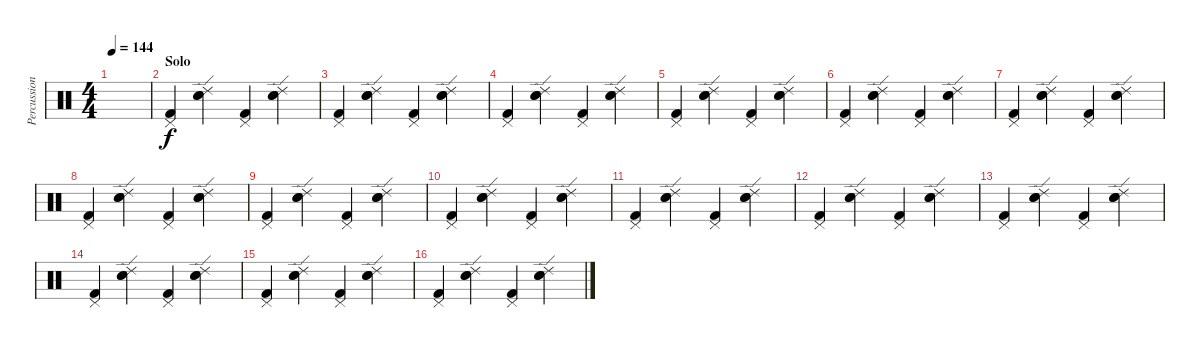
\track ("Percussions" "Percussion") {instrument percussion}
\staff {score}
\articulation defaults
\ts (4 4)
\tempo 144
\clef neutral
\ks c
|
\section ("" "Solo")
("Kick (hit) 2" "Pedal Hi-Hat (hit)").4 ("Snare (hit) 2" "Electric Snare (hit)" "Ride (edge) 2").4 ("Kick (hit) 2" "Pedal Hi-Hat (hit)").4 ("Snare (hit) 2" "Electric Snare (hit)" "Ride (edge) 2").4 |
("Kick (hit) 2" "Pedal Hi-Hat (hit)").4 ("Snare (hit) 2" "Electric Snare (hit)" "Ride (edge) 2").4 ("Kick (hit) 2" "Pedal Hi-Hat (hit)").4 ("Snare (hit) 2" "Electric Snare (hit)" "Ride (edge) 2").4 |
("Kick (hit) 2" "Pedal Hi-Hat (hit)").4 ("Snare (hit) 2" "Electric Snare (hit)" "Ride (edge) 2").4 ("Kick (hit) 2" "Pedal Hi-Hat (hit)").4 ("Snare (hit) 2" "Electric Snare (hit)" "Ride (edge) 2").4 |
("Kick (hit) 2" "Pedal Hi-Hat (hit)").4 ("Snare (hit) 2" "Electric Snare (hit)" "Ride (edge) 2").4 ("Kick (hit) 2" "Pedal Hi-Hat (hit)").4 ("Snare (hit) 2" "Electric Snare (hit)" "Ride (edge) 2").4 |
("Kick (hit) 2" "Pedal Hi-Hat (hit)").4 ("Snare (hit) 2" "Electric Snare (hit)" "Ride (edge) 2").4 ("Kick (hit) 2" "Pedal Hi-Hat (hit)").4 ("Snare (hit) 2" "Electric Snare (hit)" "Ride (edge) 2").4 |
("Kick (hit) 2" "Pedal Hi-Hat (hit)").4 ("Snare (hit) 2" "Electric Snare (hit)" "Ride (edge) 2").4 ("Kick (hit) 2" "Pedal Hi-Hat (hit)").4 ("Snare (hit) 2" "Electric Snare (hit)" "Ride (edge) 2").4 |
("Kick (hit) 2" "Pedal Hi-Hat (hit)").4 ("Snare (hit) 2" "Electric Snare (hit)" "Ride (edge) 2").4 ("Kick (hit) 2" "Pedal Hi-Hat (hit)").4 ("Snare (hit) 2" "Electric Snare (hit)" "Ride (edge) 2").4 |
("Kick (hit) 2" "Pedal Hi-Hat (hit)").4 ("Snare (hit) 2" "Electric Snare (hit)" "Ride (edge) 2").4 ("Kick (hit) 2" "Pedal Hi-Hat (hit)").4 ("Snare (hit) 2" "Electric Snare (hit)" "Ride (edge) 2").4 |
("Kick (hit) 2" "Pedal Hi-Hat (hit)").4 ("Snare (hit) 2" "Electric Snare (hit)" "Ride (edge) 2").4 ("Kick (hit) 2" "Pedal Hi-Hat (hit)").4 ("Snare (hit) 2" "Electric Snare (hit)" "Ride (edge) 2").4 |
("Kick (hit) 2" "Pedal Hi-Hat (hit)").4 ("Snare (hit) 2" "Electric Snare (hit)" "Ride (edge) 2").4 ("Kick (hit) 2" "Pedal Hi-Hat (hit)").4 ("Snare (hit) 2" "Electric Snare (hit)" "Ride (edge) 2").4 |
("Kick (hit) 2" "Pedal Hi-Hat (hit)").4 ("Snare (hit) 2" "Electric Snare (hit)" "Ride (edge) 2").4 ("Kick (hit) 2" "Pedal Hi-Hat (hit)").4 ("Snare (hit) 2" "Electric Snare (hit)" "Ride (edge) 2").4 |
("Kick (hit) 2" "Pedal Hi-Hat (hit)").4 ("Snare (hit) 2" "Electric Snare (hit)" "Ride (edge) 2").4 ("Kick (hit) 2" "Pedal Hi-Hat (hit)").4 ("Snare (hit) 2" "Electric Snare (hit)" "Ride (edge) 2").4 |
("Kick (hit) 2" "Pedal Hi-Hat (hit)").4 ("Snare (hit) 2" "Electric Snare (hit)" "Ride (edge) 2").4 ("Kick (hit) 2" "Pedal Hi-Hat (hit)").4 ("Snare (hit) 2" "Electric Snare (hit)" "Ride (edge) 2").4 |
("Kick (hit) 2" "Pedal Hi-Hat (hit)").4 ("Snare (hit) 2" "Electric Snare (hit)" "Ride (edge) 2").4 ("Kick (hit) 2" "Pedal Hi-Hat (hit)").4 ("Snare (hit) 2" "Electric Snare (hit)" "Ride (edge) 2").4 |
("Kick (hit) 2" "Pedal Hi-Hat (hit)").4 ("Snare (hit) 2" "Electric Snare (hit)" "Ride (edge) 2").4 ("Kick (hit) 2" "Pedal Hi-Hat (hit)").4 ("Snare (hit) 2" "Electric Snare (hit)" "Ride (edge) 2").4
